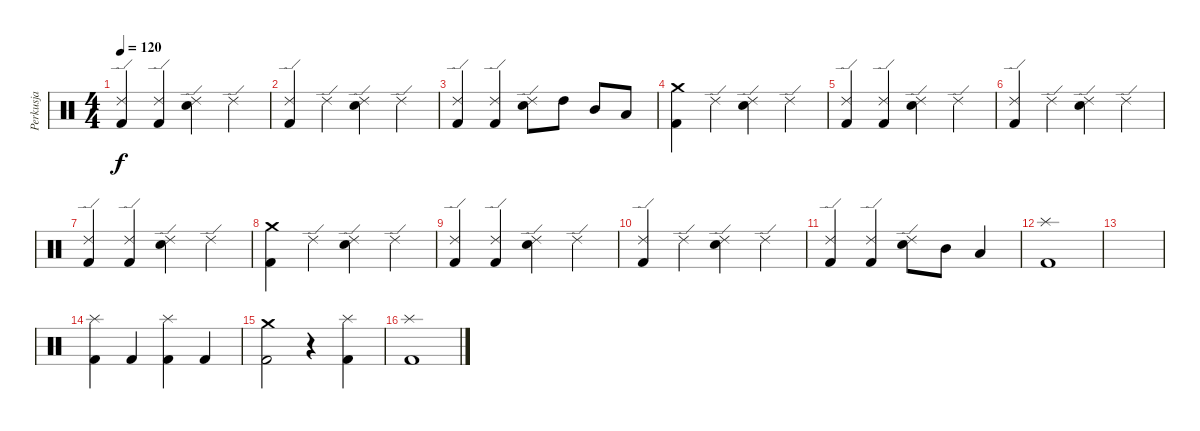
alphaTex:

\track ("Perkusja" "Perkusja") {instrument percussion}
\staff {score}
\articulation defaults
\ts (4 4)
\tempo 120
\clef neutral
\ks c
("Ride (edge) 2" "Kick (hit) 2").4{dy f} ("Ride (edge) 2" "Kick (hit) 2").4 ("Ride (edge) 2" "Snare (hit) 2").4 "Ride (edge) 2".4 |
("Ride (edge) 2" "Kick (hit) 2").4 "Ride (edge) 2".4 ("Ride (edge) 2" "Snare (hit) 2").4 "Ride (edge) 2".4 |
("Ride (edge) 2" "Kick (hit) 2").4 ("Ride (edge) 2" "Kick (hit) 2").4 ("Ride (edge) 2" "Snare (hit) 2").8 "High Tom (hit)".8 "Mid Tom (hit)".8 "Low Tom (hit)".8 |
("Crash medium (hit)" "Kick (hit) 2").4 "Ride (edge) 2".4 ("Ride (edge) 2" "Snare (hit) 2").4 "Ride (edge) 2".4 |
("Ride (edge) 2" "Kick (hit) 2").4 ("Ride (edge) 2" "Kick (hit) 2").4 ("Ride (edge) 2" "Snare (hit) 2").4 "Ride (edge) 2".4 |
("Ride (edge) 2" "Kick (hit) 2").4 "Ride (edge) 2".4 ("Ride (edge) 2" "Snare (hit) 2").4 "Ride (edge) 2".4 |
("Ride (edge) 2" "Kick (hit) 2").4 ("Ride (edge) 2" "Kick (hit) 2").4 ("Ride (edge) 2" "Snare (hit) 2").4 "Ride (edge) 2".4 |
("Crash medium (hit)" "Kick (hit) 2").4 "Ride (edge) 2".4 ("Ride (edge) 2" "Snare (hit) 2").4 "Ride (edge) 2".4 |
("Ride (edge) 2" "Kick (hit) 2").4 ("Ride (edge) 2" "Kick (hit) 2").4 ("Ride (edge) 2" "Snare (hit) 2").4 "Ride (edge) 2".4 |
("Ride (edge) 2" "Kick (hit) 2").4 "Ride (edge) 2".4 ("Ride (edge) 2" "Snare (hit) 2").4 "Ride (edge) 2".4 |
("Ride (edge) 2" "Kick (hit) 2").4 ("Ride (edge) 2" "Kick (hit) 2").4 ("Ride (edge) 2" "Snare (hit) 2").8 "Mid Tom (hit)".8 "Low Tom (hit)".4 |
("Splash (hit)" "Kick (hit) 2").1 |
|
("Splash (hit)" "Kick (hit) 2").4 "Kick (hit) 2".4 ("Splash (hit)" "Kick (hit) 2").4 "Kick (hit) 2".4 |
("Crash medium (hit)" "Kick (hit) 2").2 r.4 ("Splash (hit)" "Kick (hit) 2").4 |
("Splash (hit)" "Kick (hit) 2").1
